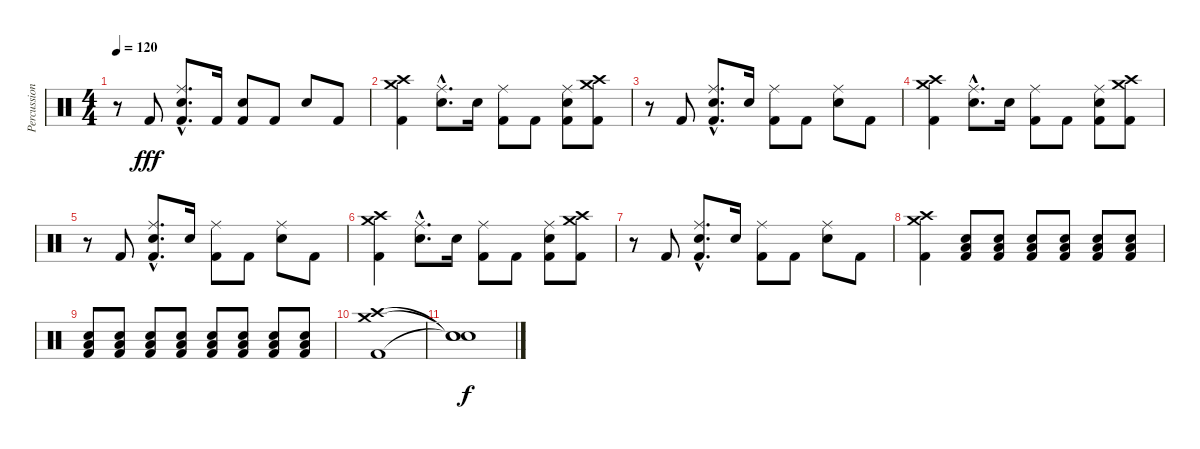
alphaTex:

\track ("Percussion" "Percussion") {instrument percussion}
\staff {score}
\articulation defaults
\ts (4 4)
\tempo 120
\clef neutral
\ks c
r.8{dy fff} "Kick (hit) 2".8 ("Ride (middle)"{hac} "Snare (hit) 2"{hac} "Kick (hit) 2"{hac}).8{d} "Kick (hit) 2".16 ("Snare (hit) 2" "Kick (hit) 2").8 "Kick (hit) 2".8 "Snare (hit) 2".8 "Kick (hit) 2".8 |
("Crash high (hit)" "Crash medium (hit)" "Kick (hit) 2").4 ("Ride (middle)"{hac} "Snare (hit) 2"{hac}).8{d} "Snare (hit) 2".16 ("Ride (middle)" "Kick (hit) 2").8 "Kick (hit) 2".8 ("Ride (middle)" "Snare (hit) 2" "Kick (hit) 2").8 ("Crash medium (hit)" "Crash high (hit)" "Kick (hit) 2").8 |
r.8 "Kick (hit) 2".8 ("Ride (middle)"{hac} "Snare (hit) 2"{hac} "Kick (hit) 2"{hac}).8{d} "Snare (hit) 2".16 ("Ride (middle)" "Kick (hit) 2").8 "Kick (hit) 2".8 ("Ride (middle)" "Snare (hit) 2").8 "Kick (hit) 2".8 |
("Crash high (hit)" "Crash medium (hit)" "Kick (hit) 2").4 ("Ride (middle)"{hac} "Snare (hit) 2"{hac}).8{d} "Snare (hit) 2".16 ("Ride (middle)" "Kick (hit) 2").8 "Kick (hit) 2".8 ("Ride (middle)" "Snare (hit) 2" "Kick (hit) 2").8 ("Crash medium (hit)" "Crash high (hit)" "Kick (hit) 2").8 |
r.8 "Kick (hit) 2".8 ("Ride (middle)"{hac} "Snare (hit) 2"{hac} "Kick (hit) 2"{hac}).8{d} "Snare (hit) 2".16 ("Ride (middle)" "Kick (hit) 2").8 "Kick (hit) 2".8 ("Ride (middle)" "Snare (hit) 2").8 "Kick (hit) 2".8 |
("Crash high (hit)" "Crash medium (hit)" "Kick (hit) 2").4 ("Ride (middle)"{hac} "Snare (hit) 2"{hac}).8{d} "Snare (hit) 2".16 ("Ride (middle)" "Kick (hit) 2").8 "Kick (hit) 2".8 ("Ride (middle)" "Snare (hit) 2" "Kick (hit) 2").8 ("Crash medium (hit)" "Crash high (hit)" "Kick (hit) 2").8 |
r.8 "Kick (hit) 2".8 ("Ride (middle)"{hac} "Snare (hit) 2"{hac} "Kick (hit) 2"{hac}).8{d} "Snare (hit) 2".16 ("Ride (middle)" "Kick (hit) 2").8 "Kick (hit) 2".8 ("Ride (middle)" "Snare (hit) 2").8 "Kick (hit) 2".8 |
("Crash high (hit)" "Crash medium (hit)" "Kick (hit) 2").4 ("Low Floor Tom (hit)" "Snare (hit) 2" "Kick (hit) 2").8 ("Low Floor Tom (hit)" "Snare (hit) 2" "Kick (hit) 2").8 ("Low Floor Tom (hit)" "Snare (hit) 2" "Kick (hit) 2").8 ("Low Floor Tom (hit)" "Snare (hit) 2" "Kick (hit) 2").8 ("Low Floor Tom (hit)" "Snare (hit) 2" "Kick (hit) 2").8 ("Low Floor Tom (hit)" "Snare (hit) 2" "Kick (hit) 2").8 |
("Low Floor Tom (hit)" "Snare (hit) 2" "Kick (hit) 2").8 ("Low Floor Tom (hit)" "Snare (hit) 2" "Kick (hit) 2").8 ("Low Floor Tom (hit)" "Snare (hit) 2" "Kick (hit) 2").8 ("Low Floor Tom (hit)" "Snare (hit) 2" "Kick (hit) 2").8 ("Low Floor Tom (hit)" "Snare (hit) 2" "Kick (hit) 2").8 ("Low Floor Tom (hit)" "Snare (hit) 2" "Kick (hit) 2").8 ("Low Floor Tom (hit)" "Snare (hit) 2" "Kick (hit) 2").8 ("Low Floor Tom (hit)" "Snare (hit) 2" "Kick (hit) 2").8 |
("Crash medium (hit)" "Crash high (hit)" "Kick (hit) 2").1 |
("Snare (hit)"{t} "Snare (hit)"{t} "Snare (hit)"{t}).1{dy f}
